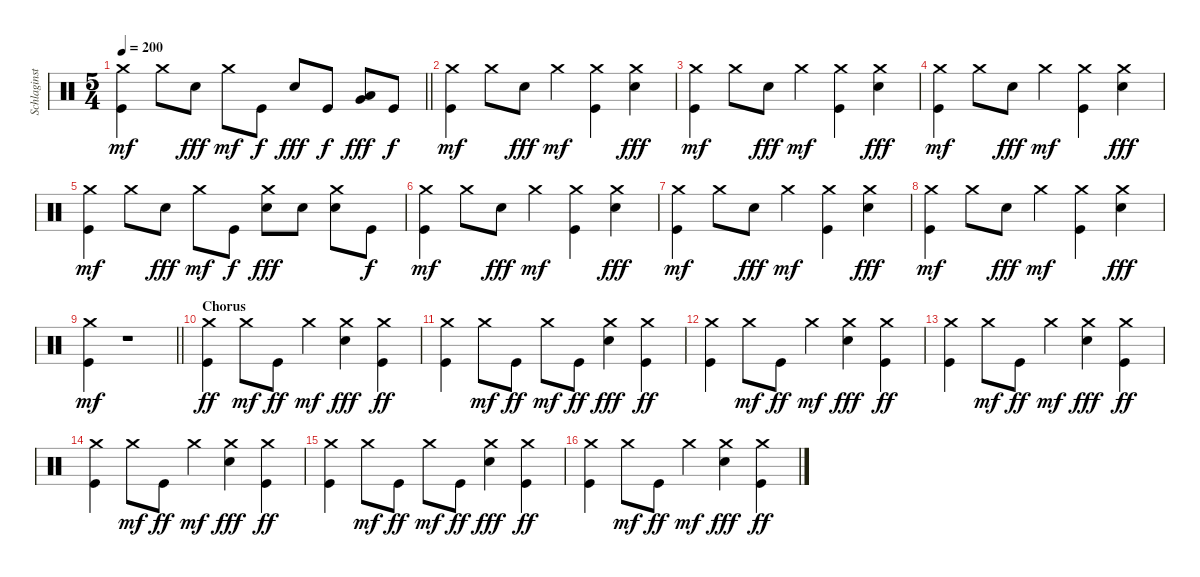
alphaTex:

\track ("Schlaginstrumente - Auswahl" "Schlaginst") {instrument percussion}
\staff {score}
\articulation defaults
\ts (5 4)
\tempo 200
\clef neutral
\barLineRight lightlight
\ks c
("Crash medium (hit)" "Kick (hit)").4{dy mf} "Crash medium (hit)".8 "Snare (hit) 2".8{dy fff} "Crash medium (hit)".8{dy mf} "Kick (hit)".8{dy f} "Snare (hit) 2".8{dy fff} "Kick (hit)".8{dy f} ("Low Tom (hit)" "Very Low Tom (hit)").8{dy fff} "Kick (hit)".8{dy f} |
("Crash medium (hit)" "Kick (hit)").4{dy mf} "Crash medium (hit)".8 "Snare (hit) 2".8{dy fff} "Crash medium (hit)".4{dy mf} ("Crash medium (hit)" "Kick (hit)").4 ("Crash medium (hit)" "Snare (hit) 2").4{dy fff} |
("Crash medium (hit)" "Kick (hit)").4{dy mf} "Crash medium (hit)".8 "Snare (hit) 2".8{dy fff} "Crash medium (hit)".4{dy mf} ("Crash medium (hit)" "Kick (hit)").4 ("Crash medium (hit)" "Snare (hit) 2").4{dy fff} |
("Crash medium (hit)" "Kick (hit)").4{dy mf} "Crash medium (hit)".8 "Snare (hit) 2".8{dy fff} "Crash medium (hit)".4{dy mf} ("Crash medium (hit)" "Kick (hit)").4 ("Crash medium (hit)" "Snare (hit) 2").4{dy fff} |
("Crash medium (hit)" "Kick (hit)").4{dy mf} "Crash medium (hit)".8 "Snare (hit) 2".8{dy fff} "Crash medium (hit)".8{dy mf} "Kick (hit)".8{dy f} ("Crash medium (hit)" "Snare (hit) 2").8{dy fff} "Snare (hit) 2".8 ("Crash medium (hit)" "Snare (hit) 2").8 "Kick (hit)".8{dy f} |
("Crash medium (hit)" "Kick (hit)").4{dy mf} "Crash medium (hit)".8 "Snare (hit) 2".8{dy fff} "Crash medium (hit)".4{dy mf} ("Crash medium (hit)" "Kick (hit)").4 ("Crash medium (hit)" "Snare (hit) 2").4{dy fff} |
("Crash medium (hit)" "Kick (hit)").4{dy mf} "Crash medium (hit)".8 "Snare (hit) 2".8{dy fff} "Crash medium (hit)".4{dy mf} ("Crash medium (hit)" "Kick (hit)").4 ("Crash medium (hit)" "Snare (hit) 2").4{dy fff} |
("Crash medium (hit)" "Kick (hit)").4{dy mf} "Crash medium (hit)".8 "Snare (hit) 2".8{dy fff} "Crash medium (hit)".4{dy mf} ("Crash medium (hit)" "Kick (hit)").4 ("Crash medium (hit)" "Snare (hit) 2").4{dy fff} |
\barLineRight lightlight
("Crash medium (hit)" "Kick (hit)").4{dy mf} r.1 |
\section ("" "Chorus")
("Crash medium (hit)" "Kick (hit)").4{dy ff} "Crash medium (hit)".8{dy mf} "Kick (hit)".8{dy ff} "Crash medium (hit)".4{dy mf} ("Crash medium (hit)" "Snare (hit) 2").4{dy fff} ("Crash medium (hit)" "Kick (hit)").4{dy ff} |
("Crash medium (hit)" "Kick (hit)").4 "Crash medium (hit)".8{dy mf} "Kick (hit)".8{dy ff} "Crash medium (hit)".8{dy mf} "Kick (hit)".8{dy ff} ("Crash medium (hit)" "Snare (hit) 2").4{dy fff} ("Crash medium (hit)" "Kick (hit)").4{dy ff} |
("Crash medium (hit)" "Kick (hit)").4 "Crash medium (hit)".8{dy mf} "Kick (hit)".8{dy ff} "Crash medium (hit)".4{dy mf} ("Crash medium (hit)" "Snare (hit) 2").4{dy fff} ("Crash medium (hit)" "Kick (hit)").4{dy ff} |
("Crash medium (hit)" "Kick (hit)").4 "Crash medium (hit)".8{dy mf} "Kick (hit)".8{dy ff} "Crash medium (hit)".4{dy mf} ("Crash medium (hit)" "Snare (hit) 2").4{dy fff} ("Crash medium (hit)" "Kick (hit)").4{dy ff} |
("Crash medium (hit)" "Kick (hit)").4 "Crash medium (hit)".8{dy mf} "Kick (hit)".8{dy ff} "Crash medium (hit)".4{dy mf} ("Crash medium (hit)" "Snare (hit) 2").4{dy fff} ("Crash medium (hit)" "Kick (hit)").4{dy ff} |
("Crash medium (hit)" "Kick (hit)").4 "Crash medium (hit)".8{dy mf} "Kick (hit)".8{dy ff} "Crash medium (hit)".8{dy mf} "Kick (hit)".8{dy ff} ("Crash medium (hit)" "Snare (hit) 2").4{dy fff} ("Crash medium (hit)" "Kick (hit)").4{dy ff} |
("Crash medium (hit)" "Kick (hit)").4 "Crash medium (hit)".8{dy mf} "Kick (hit)".8{dy ff} "Crash medium (hit)".4{dy mf} ("Crash medium (hit)" "Snare (hit) 2").4{dy fff} ("Crash medium (hit)" "Kick (hit)").4{dy ff}
